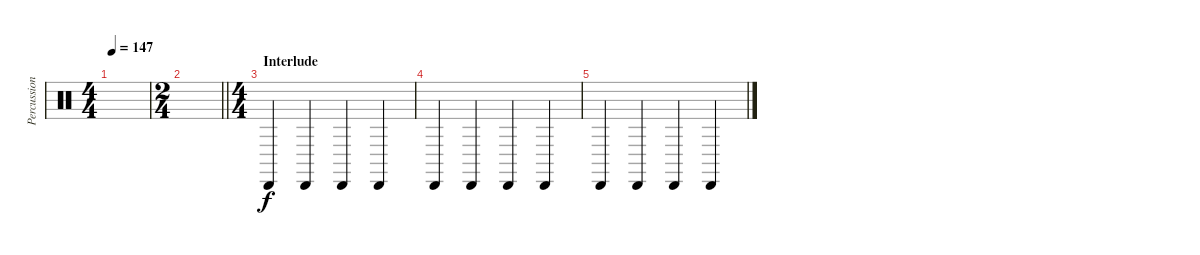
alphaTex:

\track ("Percussion (Matt Laug)" "Percussion") {instrument percussion}
\staff {score}
\articulation defaults
\ts (4 4)
\tempo 147
\clef neutral
\ks c
|
\ts (2 4)
\barLineRight lightlight
|
\ts (4 4)
\section ("" "Interlude")
"Cabasa (hit)".4 "Cabasa (hit)".4 "Cabasa (hit)".4 "Cabasa (hit)".4 |
"Cabasa (hit)".4 "Cabasa (hit)".4 "Cabasa (hit)".4 "Cabasa (hit)".4 |
"Cabasa (hit)".4 "Cabasa (hit)".4 "Cabasa (hit)".4 "Cabasa (hit)".4
